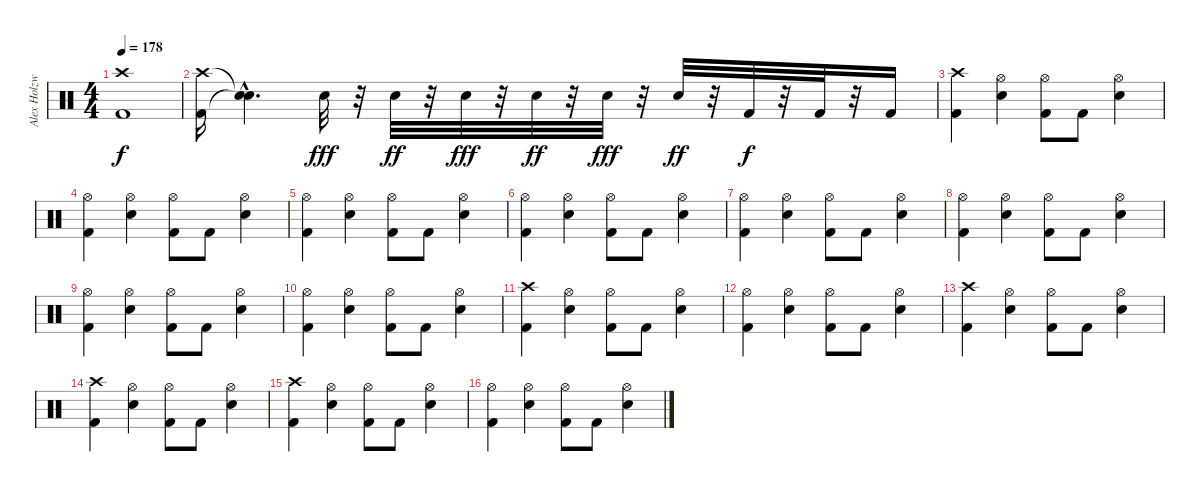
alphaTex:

\track ("Alex Holzwarth" "Alex Holzw") {instrument percussion}
\staff {score}
\articulation defaults
\ts (4 4)
\tempo 178
\clef neutral
\ks c
("Crash high (hit)" "Kick (hit) 2").1{dy f} |
("Crash high (hit)" "Kick (hit) 2").16 ("Snare (hit)"{hac t} "Snare (hit)"{hac t}).4{d} "Electric Snare (hit)".32{dy fff} r.32 "Electric Snare (hit)".32{dy ff} r.32 "Electric Snare (hit)".32{dy fff} r.32 "Electric Snare (hit)".32{dy ff} r.32 "Electric Snare (hit)".32{dy fff} r.32 "Electric Snare (hit)".32{dy ff} r.32 "Kick (hit) 2".32{dy f} r.32 "Kick (hit) 2".32 r.32 "Kick (hit) 2".16 |
("Crash high (hit)" "Kick (hit) 2").4 ("Hi-Hat (open)" "Electric Snare (hit)").4 ("Hi-Hat (open)" "Kick (hit) 2").8 "Kick (hit) 2".8 ("Hi-Hat (open)" "Electric Snare (hit)").4 |
("Hi-Hat (open)" "Kick (hit) 2").4 ("Hi-Hat (open)" "Electric Snare (hit)").4 ("Hi-Hat (open)" "Kick (hit) 2").8 "Kick (hit) 2".8 ("Hi-Hat (open)" "Electric Snare (hit)").4 |
("Hi-Hat (open)" "Kick (hit) 2").4 ("Hi-Hat (open)" "Electric Snare (hit)").4 ("Hi-Hat (open)" "Kick (hit) 2").8 "Kick (hit) 2".8 ("Hi-Hat (open)" "Electric Snare (hit)").4 |
("Hi-Hat (open)" "Kick (hit) 2").4 ("Hi-Hat (open)" "Electric Snare (hit)").4 ("Hi-Hat (open)" "Kick (hit) 2").8 "Kick (hit) 2".8 ("Hi-Hat (open)" "Electric Snare (hit)").4 |
("Hi-Hat (open)" "Kick (hit) 2").4 ("Hi-Hat (open)" "Electric Snare (hit)").4 ("Hi-Hat (open)" "Kick (hit) 2").8 "Kick (hit) 2".8 ("Hi-Hat (open)" "Electric Snare (hit)").4 |
("Hi-Hat (open)" "Kick (hit) 2").4 ("Hi-Hat (open)" "Electric Snare (hit)").4 ("Hi-Hat (open)" "Kick (hit) 2").8 "Kick (hit) 2".8 ("Hi-Hat (open)" "Electric Snare (hit)").4 |
("Hi-Hat (open)" "Kick (hit) 2").4 ("Hi-Hat (open)" "Electric Snare (hit)").4 ("Hi-Hat (open)" "Kick (hit) 2").8 "Kick (hit) 2".8 ("Hi-Hat (open)" "Electric Snare (hit)").4 |
("Hi-Hat (open)" "Kick (hit) 2").4 ("Hi-Hat (open)" "Electric Snare (hit)").4 ("Hi-Hat (open)" "Kick (hit) 2").8 "Kick (hit) 2".8 ("Hi-Hat (open)" "Electric Snare (hit)").4 |
("Crash high (hit)" "Kick (hit) 2").4 ("Hi-Hat (open)" "Electric Snare (hit)").4 ("Hi-Hat (open)" "Kick (hit) 2").8 "Kick (hit) 2".8 ("Hi-Hat (open)" "Electric Snare (hit)").4 |
("Hi-Hat (open)" "Kick (hit) 2").4 ("Hi-Hat (open)" "Electric Snare (hit)").4 ("Hi-Hat (open)" "Kick (hit) 2").8 "Kick (hit) 2".8 ("Hi-Hat (open)" "Electric Snare (hit)").4 |
("Crash high (hit)" "Kick (hit) 2").4 ("Hi-Hat (open)" "Electric Snare (hit)").4 ("Hi-Hat (open)" "Kick (hit) 2").8 "Kick (hit) 2".8 ("Hi-Hat (open)" "Electric Snare (hit)").4 |
("Crash high (hit)" "Kick (hit) 2").4 ("Hi-Hat (open)" "Electric Snare (hit)").4 ("Hi-Hat (open)" "Kick (hit) 2").8 "Kick (hit) 2".8 ("Hi-Hat (open)" "Electric Snare (hit)").4 |
("Crash high (hit)" "Kick (hit) 2").4 ("Hi-Hat (open)" "Electric Snare (hit)").4 ("Hi-Hat (open)" "Kick (hit) 2").8 "Kick (hit) 2".8 ("Hi-Hat (open)" "Electric Snare (hit)").4 |
("Hi-Hat (open)" "Kick (hit) 2").4 ("Hi-Hat (open)" "Electric Snare (hit)").4 ("Hi-Hat (open)" "Kick (hit) 2").8 "Kick (hit) 2".8 ("Hi-Hat (open)" "Electric Snare (hit)").4
